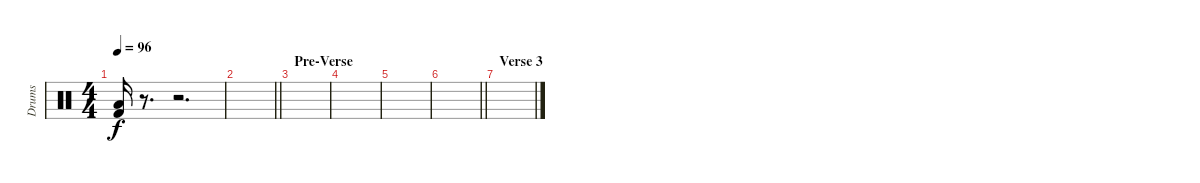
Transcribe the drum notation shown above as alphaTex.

\track ("Drums" "Drums") {instrument percussion}
\staff {score}
\articulation defaults
\ts (4 4)
\tempo 96
\clef neutral
\ks c
("Low Tom (hit)" "Kick (hit) 2").16{dy f} r.8{d} r.2{d} |
\barLineRight lightlight
|
\section ("" "Pre-Verse")
|
|
|
\barLineRight lightlight
|
\section ("" "Verse 3")
